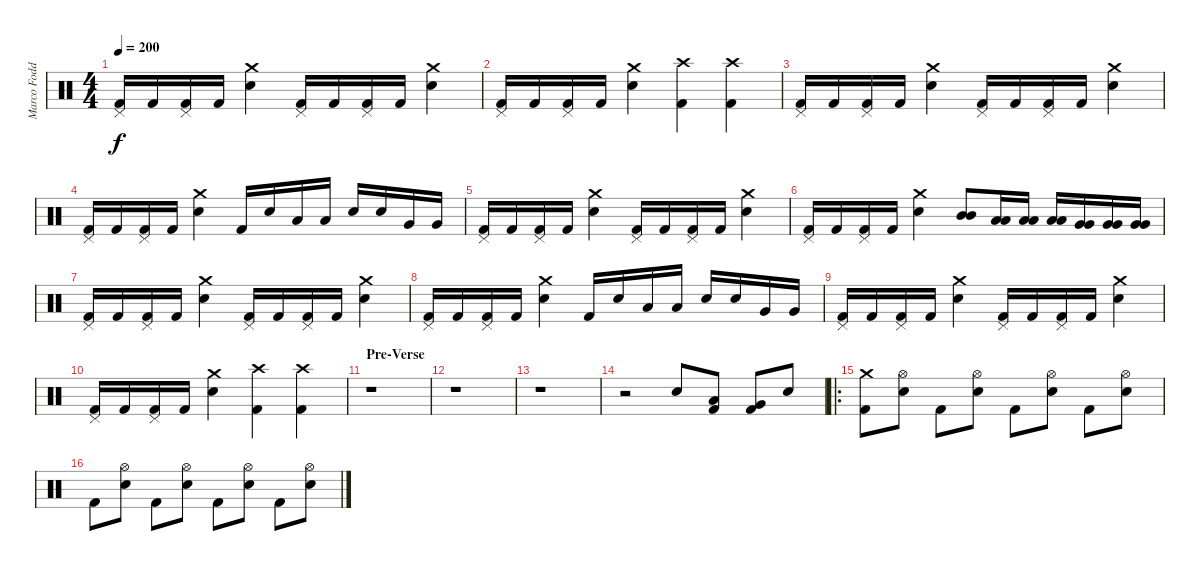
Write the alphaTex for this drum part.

\track ("Marco Foddis " "Marco Fodd") {instrument percussion}
\staff {score}
\articulation defaults
\ts (4 4)
\tempo 200
\clef neutral
\ks c
("Pedal Hi-Hat (hit)" "Kick (hit) 2").16{dy f} "Kick (hit) 2".16 ("Pedal Hi-Hat (hit)" "Kick (hit) 2").16 "Kick (hit) 2".16 ("Crash medium (hit)" "Electric Snare (hit)").4 ("Pedal Hi-Hat (hit)" "Kick (hit) 2").16 "Kick (hit) 2".16 ("Pedal Hi-Hat (hit)" "Kick (hit) 2").16 "Kick (hit) 2".16 ("Crash medium (hit)" "Electric Snare (hit)").4 |
("Pedal Hi-Hat (hit)" "Kick (hit) 2").16 "Kick (hit) 2".16 ("Pedal Hi-Hat (hit)" "Kick (hit) 2").16 "Kick (hit) 2".16 ("Crash medium (hit)" "Electric Snare (hit)").4 ("Crash high (hit)" "Kick (hit) 2").4 ("Crash high (hit)" "Kick (hit) 2").4 |
("Pedal Hi-Hat (hit)" "Kick (hit) 2").16 "Kick (hit) 2".16 ("Pedal Hi-Hat (hit)" "Kick (hit) 2").16 "Kick (hit) 2".16 ("Crash medium (hit)" "Electric Snare (hit)").4 ("Pedal Hi-Hat (hit)" "Kick (hit) 2").16 "Kick (hit) 2".16 ("Pedal Hi-Hat (hit)" "Kick (hit) 2").16 "Kick (hit) 2".16 ("Crash medium (hit)" "Electric Snare (hit)").4 |
("Pedal Hi-Hat (hit)" "Kick (hit) 2").16 "Kick (hit) 2".16 ("Pedal Hi-Hat (hit)" "Kick (hit) 2").16 "Kick (hit) 2".16 ("Crash medium (hit)" "Electric Snare (hit)").4 "Kick (hit) 2".16 "Electric Snare (hit)".16 "Low Tom (hit)".16 "Low Tom (hit)".16 "Electric Snare (hit)".16 "Electric Snare (hit)".16 "Very Low Tom (hit)".16 "Very Low Tom (hit)".16 |
("Pedal Hi-Hat (hit)" "Kick (hit) 2").16 "Kick (hit) 2".16 ("Pedal Hi-Hat (hit)" "Kick (hit) 2").16 "Kick (hit) 2".16 ("Crash medium (hit)" "Electric Snare (hit)").4 ("Pedal Hi-Hat (hit)" "Kick (hit) 2").16 "Kick (hit) 2".16 ("Pedal Hi-Hat (hit)" "Kick (hit) 2").16 "Kick (hit) 2".16 ("Crash medium (hit)" "Electric Snare (hit)").4 |
("Pedal Hi-Hat (hit)" "Kick (hit) 2").16 "Kick (hit) 2".16 ("Pedal Hi-Hat (hit)" "Kick (hit) 2").16 "Kick (hit) 2".16 ("Crash medium (hit)" "Electric Snare (hit)").4 ("Mid Tom (hit)" "Mid Tom (hit)").8 ("Low Tom (hit)" "Low Tom (hit)").16 ("Low Tom (hit)" "Low Tom (hit)").16 ("Low Tom (hit)" "Low Tom (hit)").16 ("Very Low Tom (hit)" "Very Low Tom (hit)").16 ("Very Low Tom (hit)" "Very Low Tom (hit)").16 ("Very Low Tom (hit)" "Very Low Tom (hit)").16 |
("Pedal Hi-Hat (hit)" "Kick (hit) 2").16 "Kick (hit) 2".16 ("Pedal Hi-Hat (hit)" "Kick (hit) 2").16 "Kick (hit) 2".16 ("Crash medium (hit)" "Electric Snare (hit)").4 ("Pedal Hi-Hat (hit)" "Kick (hit) 2").16 "Kick (hit) 2".16 ("Pedal Hi-Hat (hit)" "Kick (hit) 2").16 "Kick (hit) 2".16 ("Crash medium (hit)" "Electric Snare (hit)").4 |
("Pedal Hi-Hat (hit)" "Kick (hit) 2").16 "Kick (hit) 2".16 ("Pedal Hi-Hat (hit)" "Kick (hit) 2").16 "Kick (hit) 2".16 ("Crash medium (hit)" "Electric Snare (hit)").4 "Kick (hit) 2".16 "Electric Snare (hit)".16 "Low Tom (hit)".16 "Low Tom (hit)".16 "Electric Snare (hit)".16 "Electric Snare (hit)".16 "Very Low Tom (hit)".16 "Very Low Tom (hit)".16 |
("Pedal Hi-Hat (hit)" "Kick (hit) 2").16 "Kick (hit) 2".16 ("Pedal Hi-Hat (hit)" "Kick (hit) 2").16 "Kick (hit) 2".16 ("Crash medium (hit)" "Electric Snare (hit)").4 ("Pedal Hi-Hat (hit)" "Kick (hit) 2").16 "Kick (hit) 2".16 ("Pedal Hi-Hat (hit)" "Kick (hit) 2").16 "Kick (hit) 2".16 ("Crash medium (hit)" "Electric Snare (hit)").4 |
("Pedal Hi-Hat (hit)" "Kick (hit) 2").16 "Kick (hit) 2".16 ("Pedal Hi-Hat (hit)" "Kick (hit) 2").16 "Kick (hit) 2".16 ("Crash medium (hit)" "Electric Snare (hit)").4 ("Crash high (hit)" "Kick (hit) 2").4 ("Crash high (hit)" "Kick (hit) 2").4 |
\section ("" "Pre-Verse")
r.1 |
r.1 |
r.1 |
r.2 "Electric Snare (hit)".8 ("Low Tom (hit)" "Kick (hit) 2").8 ("Very Low Tom (hit)" "Kick (hit) 2").8 "Electric Snare (hit)".8 |
\ro
("Crash medium (hit)" "Kick (hit) 2").8 ("Hi-Hat (open)" "Electric Snare (hit)").8 "Kick (hit) 2".8 ("Hi-Hat (open)" "Electric Snare (hit)").8 "Kick (hit) 2".8 ("Hi-Hat (open)" "Electric Snare (hit)").8 "Kick (hit) 2".8 ("Hi-Hat (open)" "Electric Snare (hit)").8 |
"Kick (hit) 2".8 ("Hi-Hat (open)" "Electric Snare (hit)").8 "Kick (hit) 2".8 ("Hi-Hat (open)" "Electric Snare (hit)").8 "Kick (hit) 2".8 ("Hi-Hat (open)" "Electric Snare (hit)").8 "Kick (hit) 2".8 ("Hi-Hat (open)" "Electric Snare (hit)").8
